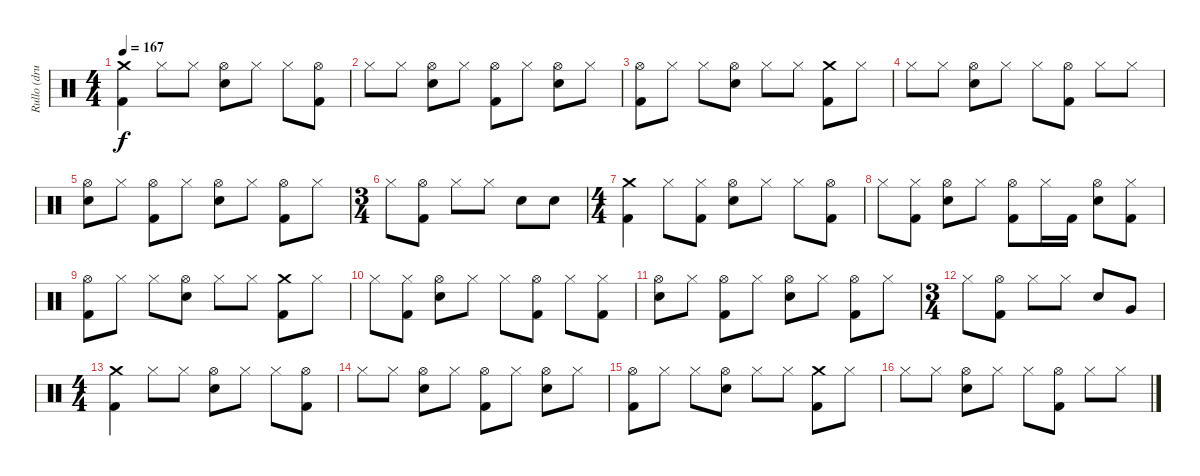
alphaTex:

\track ("Rullo (drums)" "Rullo (dru") {instrument percussion}
\staff {score}
\articulation defaults
\ts (4 4)
\tempo 167
\clef neutral
\ks c
("Crash medium (hit)" "Kick (hit) 2").4{dy f} "Hi-Hat (closed)".8 "Hi-Hat (closed)".8 ("Hi-Hat (open)" "Electric Snare (hit)").8 "Hi-Hat (closed)".8 "Hi-Hat (closed)".8 ("Hi-Hat (open)" "Kick (hit) 2").8 |
"Hi-Hat (closed)".8 "Hi-Hat (closed)".8 ("Hi-Hat (open)" "Electric Snare (hit)").8 "Hi-Hat (closed)".8 ("Hi-Hat (open)" "Kick (hit) 2").8 "Hi-Hat (closed)".8 ("Hi-Hat (open)" "Electric Snare (hit)").8 "Hi-Hat (closed)".8 |
("Hi-Hat (open)" "Kick (hit) 2").8 "Hi-Hat (closed)".8 "Hi-Hat (closed)".8 ("Hi-Hat (open)" "Electric Snare (hit)").8 "Hi-Hat (closed)".8 "Hi-Hat (closed)".8 ("Crash medium (hit)" "Kick (hit) 2").8 "Hi-Hat (closed)".8 |
"Hi-Hat (closed)".8 "Hi-Hat (closed)".8 ("Hi-Hat (open)" "Electric Snare (hit)").8 "Hi-Hat (closed)".8 "Hi-Hat (closed)".8 ("Hi-Hat (open)" "Kick (hit) 2").8 "Hi-Hat (closed)".8 "Hi-Hat (closed)".8 |
("Hi-Hat (open)" "Electric Snare (hit)").8 "Hi-Hat (closed)".8 ("Hi-Hat (open)" "Kick (hit) 2").8 "Hi-Hat (closed)".8 ("Hi-Hat (open)" "Electric Snare (hit)").8 "Hi-Hat (closed)".8 ("Hi-Hat (open)" "Kick (hit) 2").8 "Hi-Hat (closed)".8 |
\ts (3 4)
"Hi-Hat (closed)".8 ("Hi-Hat (open)" "Kick (hit) 2").8 "Hi-Hat (closed)".8 "Hi-Hat (closed)".8 "Electric Snare (hit)".8 "Electric Snare (hit)".8 |
\ts (4 4)
("Crash medium (hit)" "Kick (hit) 2").4 "Hi-Hat (closed)".8 ("Kick (hit) 2" "Hi-Hat (closed)").8 ("Hi-Hat (open)" "Electric Snare (hit)").8 "Hi-Hat (closed)".8 "Hi-Hat (closed)".8 ("Hi-Hat (open)" "Kick (hit) 2").8 |
"Hi-Hat (closed)".8 ("Kick (hit) 2" "Hi-Hat (closed)").8 ("Hi-Hat (open)" "Electric Snare (hit)").8 "Hi-Hat (closed)".8 ("Hi-Hat (open)" "Kick (hit) 2").8 "Hi-Hat (closed)".16 "Kick (hit) 2".16 ("Hi-Hat (open)" "Electric Snare (hit)").8 ("Kick (hit) 2" "Hi-Hat (closed)").8 |
("Hi-Hat (open)" "Kick (hit) 2").8 "Hi-Hat (closed)".8 "Hi-Hat (closed)".8 ("Hi-Hat (open)" "Electric Snare (hit)").8 "Hi-Hat (closed)".8 "Hi-Hat (closed)".8 ("Crash medium (hit)" "Kick (hit) 2").8 "Hi-Hat (closed)".8 |
"Hi-Hat (closed)".8 ("Kick (hit) 2" "Hi-Hat (closed)").8 ("Hi-Hat (open)" "Electric Snare (hit)").8 "Hi-Hat (closed)".8 "Hi-Hat (closed)".8 ("Hi-Hat (open)" "Kick (hit) 2").8 "Hi-Hat (closed)".8 ("Kick (hit) 2" "Hi-Hat (closed)").8 |
("Hi-Hat (open)" "Electric Snare (hit)").8 "Hi-Hat (closed)".8 ("Hi-Hat (open)" "Kick (hit) 2").8 "Hi-Hat (closed)".8 ("Hi-Hat (open)" "Electric Snare (hit)").8 "Hi-Hat (closed)".8 ("Hi-Hat (open)" "Kick (hit) 2").8 "Hi-Hat (closed)".8 |
\ts (3 4)
"Hi-Hat (closed)".8 ("Hi-Hat (open)" "Kick (hit) 2").8 "Hi-Hat (closed)".8 "Hi-Hat (closed)".8 "Electric Snare (hit)".8 "Very Low Tom (hit)".8 |
\ts (4 4)
("Crash medium (hit)" "Kick (hit) 2").4 "Hi-Hat (closed)".8 "Hi-Hat (closed)".8 ("Hi-Hat (open)" "Electric Snare (hit)").8 "Hi-Hat (closed)".8 "Hi-Hat (closed)".8 ("Hi-Hat (open)" "Kick (hit) 2").8 |
"Hi-Hat (closed)".8 "Hi-Hat (closed)".8 ("Hi-Hat (open)" "Electric Snare (hit)").8 "Hi-Hat (closed)".8 ("Hi-Hat (open)" "Kick (hit) 2").8 "Hi-Hat (closed)".8 ("Hi-Hat (open)" "Electric Snare (hit)").8 "Hi-Hat (closed)".8 |
("Hi-Hat (open)" "Kick (hit) 2").8 "Hi-Hat (closed)".8 "Hi-Hat (closed)".8 ("Hi-Hat (open)" "Electric Snare (hit)").8 "Hi-Hat (closed)".8 "Hi-Hat (closed)".8 ("Crash medium (hit)" "Kick (hit) 2").8 "Hi-Hat (closed)".8 |
"Hi-Hat (closed)".8 "Hi-Hat (closed)".8 ("Hi-Hat (open)" "Electric Snare (hit)").8 "Hi-Hat (closed)".8 "Hi-Hat (closed)".8 ("Hi-Hat (open)" "Kick (hit) 2").8 "Hi-Hat (closed)".8 "Hi-Hat (closed)".8
